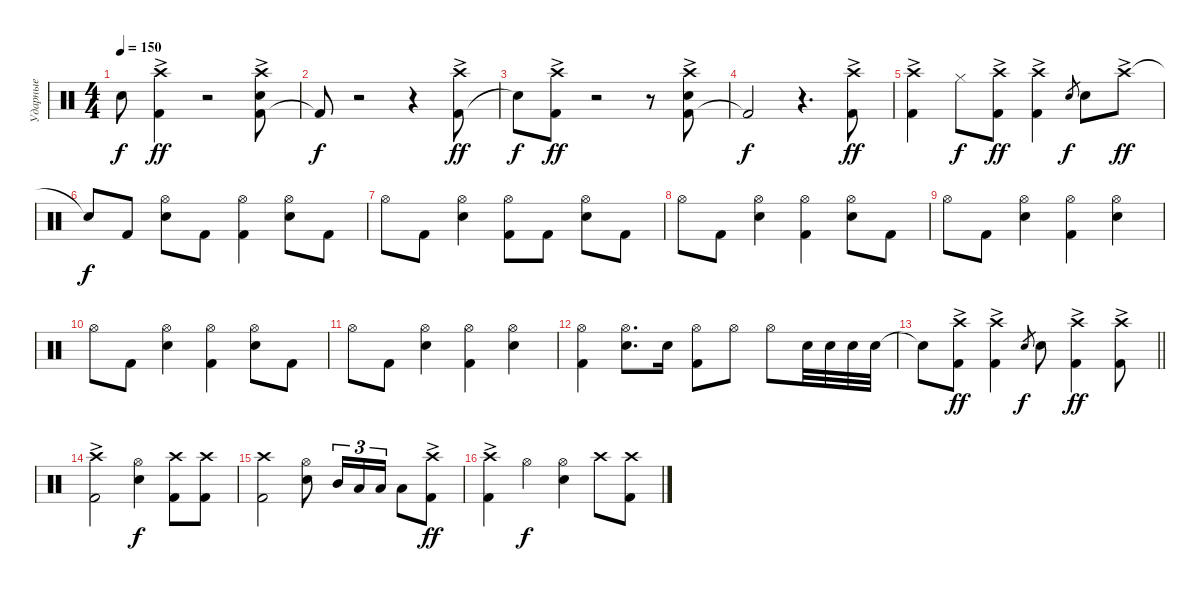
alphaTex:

\track ("Ударные" "Ударные") {instrument percussion}
\staff
\articulation defaults
\ts (4 4)
\tempo 150
\clef neutral
\ks c "Snare (hit)"{t}.8{dy f}
("Kick (hit) 2" "Crash high (hit)"{ac}).4{dy ff} r.2 ("Kick (hit) 2" "Snare (hit) 2" "Crash high (hit)"{ac}).8 |
"Kick (hit) 2"{t}.8{dy f} r.2 r.4 ("Kick (hit) 2" "Crash high (hit)"{ac}).8{dy ff} |
"Snare (hit)"{t}.8{dy f} ("Kick (hit) 2" "Crash high (hit)"{ac}).8{dy ff} r.2 r.8 ("Kick (hit) 2" "Snare (hit) 2" "Crash high (hit)"{ac}).8 |
"Kick (hit) 2"{t}.2{dy f} r.4{d} ("Kick (hit) 2" "Crash high (hit)"{ac}).8{dy ff} |
("Kick (hit) 2" "Crash high (hit)"{ac}).4 "Hi-Hat (closed)".8{dy f} ("Kick (hit) 2" "Crash high (hit)"{ac}).8{dy ff} ("Kick (hit) 2" "Crash high (hit)"{ac}).4 "Snare (hit) 2".8{gr dy f} "Snare (hit) 2".8 "Crash high (hit)"{ac}.8{dy ff} |
"Snare (hit)"{t}.8{dy f} "Kick (hit) 2".8 ("Snare (hit) 2" "Hi-Hat (open)").8 "Kick (hit) 2".8 ("Kick (hit) 2" "Hi-Hat (open)").4 ("Snare (hit) 2" "Hi-Hat (open)").8 "Kick (hit) 2".8 |
"Hi-Hat (open)".8 "Kick (hit) 2".8 ("Snare (hit) 2" "Hi-Hat (open)").4 ("Kick (hit) 2" "Hi-Hat (open)").8 "Kick (hit) 2".8 ("Snare (hit) 2" "Hi-Hat (open)").8 "Kick (hit) 2".8 |
"Hi-Hat (open)".8 "Kick (hit) 2".8 ("Snare (hit) 2" "Hi-Hat (open)").4 ("Kick (hit) 2" "Hi-Hat (open)").4 ("Snare (hit) 2" "Hi-Hat (open)").8 "Kick (hit) 2".8 |
"Hi-Hat (open)".8 "Kick (hit) 2".8 ("Snare (hit) 2" "Hi-Hat (open)").4 ("Kick (hit) 2" "Hi-Hat (open)").4 ("Snare (hit) 2" "Hi-Hat (open)").4 |
"Hi-Hat (open)".8 "Kick (hit) 2".8 ("Snare (hit) 2" "Hi-Hat (open)").4 ("Kick (hit) 2" "Hi-Hat (open)").4 ("Snare (hit) 2" "Hi-Hat (open)").8 "Kick (hit) 2".8 |
"Hi-Hat (open)".8 "Kick (hit) 2".8 ("Snare (hit) 2" "Hi-Hat (open)").4 ("Kick (hit) 2" "Hi-Hat (open)").4 ("Snare (hit) 2" "Hi-Hat (open)").4 |
("Kick (hit) 2" "Hi-Hat (open)").4 ("Snare (hit) 2" "Hi-Hat (open)").8{d} "Snare (hit) 2".16 ("Kick (hit) 2" "Hi-Hat (open)").8 "Hi-Hat (open)".8 "Hi-Hat (open)".8 "Snare (hit) 2".32 "Snare (hit) 2".32 "Snare (hit) 2".32 "Snare (hit) 2".32 |
\barLineRight lightlight "Snare (hit)"{t}.8
("Kick (hit) 2" "Crash high (hit)"{ac}).8{dy ff} ("Kick (hit) 2" "Crash high (hit)"{ac}).4 "Snare (hit) 2".8{gr dy f} "Snare (hit) 2".8 ("Kick (hit) 2" "Crash high (hit)"{ac}).4{dy ff} ("Kick (hit) 2" "Crash high (hit)"{ac}).8 |
("Kick (hit) 2" "Crash high (hit)"{ac}).2 ("Snare (hit) 2" "Hi-Hat (open)").4{dy f} ("Kick (hit) 2" "Crash high (hit)").8 ("Kick (hit) 2" "Crash high (hit)").8 |
("Kick (hit) 2" "Crash high (hit)").2 ("Snare (hit) 2" "Hi-Hat (open)").8 "Mid Tom (hit)".16{tu (3 2)} "Low Tom (hit)".16{tu (3 2)} "Low Tom (hit)".16{tu (3 2)} "Low Tom (hit)".8 ("Kick (hit) 2" "Crash high (hit)"{ac}).8{dy ff} |
("Kick (hit) 2" "Crash high (hit)"{ac}).4 "Hi-Hat (open)".4{dy f} ("Snare (hit) 2" "Hi-Hat (open)").4 "Crash high (hit)".8 ("Kick (hit) 2" "Crash high (hit)").8
